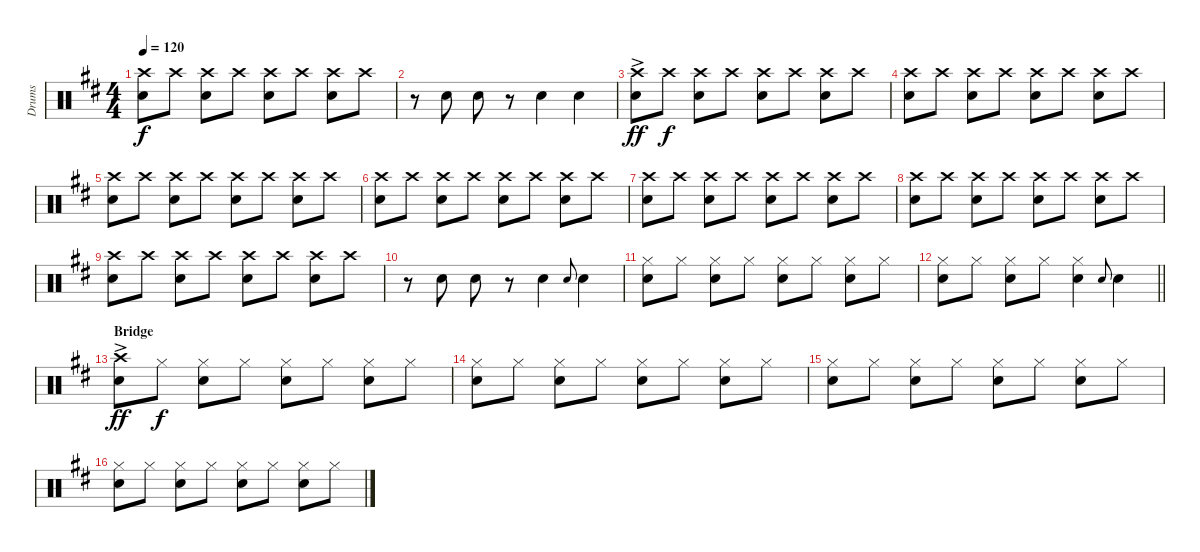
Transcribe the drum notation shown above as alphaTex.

\track ("Drums" "Drums") {instrument percussion}
\staff {score}
\articulation defaults
\ts (4 4)
\tempo 120
\clef neutral
\ks d
("Crash high (hit)" "Snare (hit) 2").8{dy f} "Crash high (hit)".8 ("Crash high (hit)" "Snare (hit) 2").8 "Crash high (hit)".8 ("Crash high (hit)" "Snare (hit) 2").8 "Crash high (hit)".8 ("Crash high (hit)" "Snare (hit) 2").8 "Crash high (hit)".8 |
r.8 "Snare (hit) 2".8 "Snare (hit) 2".8 r.8 "Snare (hit) 2".4 "Snare (hit) 2".4 |
("Crash high (hit)"{ac} "Snare (hit) 2").8{dy ff} "Crash high (hit)".8{dy f} ("Crash high (hit)" "Snare (hit) 2").8 "Crash high (hit)".8 ("Crash high (hit)" "Snare (hit) 2").8 "Crash high (hit)".8 ("Crash high (hit)" "Snare (hit) 2").8 "Crash high (hit)".8 |
("Crash high (hit)" "Snare (hit) 2").8 "Crash high (hit)".8 ("Crash high (hit)" "Snare (hit) 2").8 "Crash high (hit)".8 ("Crash high (hit)" "Snare (hit) 2").8 "Crash high (hit)".8 ("Crash high (hit)" "Snare (hit) 2").8 "Crash high (hit)".8 |
("Crash high (hit)" "Snare (hit) 2").8 "Crash high (hit)".8 ("Crash high (hit)" "Snare (hit) 2").8 "Crash high (hit)".8 ("Crash high (hit)" "Snare (hit) 2").8 "Crash high (hit)".8 ("Crash high (hit)" "Snare (hit) 2").8 "Crash high (hit)".8 |
("Crash high (hit)" "Snare (hit) 2").8 "Crash high (hit)".8 ("Crash high (hit)" "Snare (hit) 2").8 "Crash high (hit)".8 ("Crash high (hit)" "Snare (hit) 2").8 "Crash high (hit)".8 ("Crash high (hit)" "Snare (hit) 2").8 "Crash high (hit)".8 |
("Crash high (hit)" "Snare (hit) 2").8 "Crash high (hit)".8 ("Crash high (hit)" "Snare (hit) 2").8 "Crash high (hit)".8 ("Crash high (hit)" "Snare (hit) 2").8 "Crash high (hit)".8 ("Crash high (hit)" "Snare (hit) 2").8 "Crash high (hit)".8 |
("Crash high (hit)" "Snare (hit) 2").8 "Crash high (hit)".8 ("Crash high (hit)" "Snare (hit) 2").8 "Crash high (hit)".8 ("Crash high (hit)" "Snare (hit) 2").8 "Crash high (hit)".8 ("Crash high (hit)" "Snare (hit) 2").8 "Crash high (hit)".8 |
("Crash high (hit)" "Snare (hit) 2").8 "Crash high (hit)".8 ("Crash high (hit)" "Snare (hit) 2").8 "Crash high (hit)".8 ("Crash high (hit)" "Snare (hit) 2").8 "Crash high (hit)".8 ("Crash high (hit)" "Snare (hit) 2").8 "Crash high (hit)".8 |
r.8 "Snare (hit) 2".8 "Snare (hit) 2".8 r.8 "Snare (hit) 2".4 "Snare (hit) 2".8{gr onbeat} "Snare (hit) 2".4 |
("Hi-Hat (closed)" "Snare (hit) 2").8 "Hi-Hat (closed)".8 ("Hi-Hat (closed)" "Snare (hit) 2").8 "Hi-Hat (closed)".8 ("Hi-Hat (closed)" "Snare (hit) 2").8 "Hi-Hat (closed)".8 ("Hi-Hat (closed)" "Snare (hit) 2").8 "Hi-Hat (closed)".8 |
\barLineRight lightlight
("Hi-Hat (closed)" "Snare (hit) 2").8 "Hi-Hat (closed)".8 ("Hi-Hat (closed)" "Snare (hit) 2").8 "Hi-Hat (closed)".8 ("Hi-Hat (closed)" "Snare (hit) 2").4 "Snare (hit) 2".8{gr onbeat} "Snare (hit) 2".4 |
\section ("" "Bridge")
("Crash high (hit)"{ac} "Snare (hit) 2").8{dy ff} "Hi-Hat (closed)".8{dy f} ("Hi-Hat (closed)" "Snare (hit) 2").8 "Hi-Hat (closed)".8 ("Hi-Hat (closed)" "Snare (hit) 2").8 "Hi-Hat (closed)".8 ("Hi-Hat (closed)" "Snare (hit) 2").8 "Hi-Hat (closed)".8 |
("Hi-Hat (closed)" "Snare (hit) 2").8 "Hi-Hat (closed)".8 ("Hi-Hat (closed)" "Snare (hit) 2").8 "Hi-Hat (closed)".8 ("Hi-Hat (closed)" "Snare (hit) 2").8 "Hi-Hat (closed)".8 ("Hi-Hat (closed)" "Snare (hit) 2").8 "Hi-Hat (closed)".8 |
("Hi-Hat (closed)" "Snare (hit) 2").8 "Hi-Hat (closed)".8 ("Hi-Hat (closed)" "Snare (hit) 2").8 "Hi-Hat (closed)".8 ("Hi-Hat (closed)" "Snare (hit) 2").8 "Hi-Hat (closed)".8 ("Hi-Hat (closed)" "Snare (hit) 2").8 "Hi-Hat (closed)".8 |
("Hi-Hat (closed)" "Snare (hit) 2").8 "Hi-Hat (closed)".8 ("Hi-Hat (closed)" "Snare (hit) 2").8 "Hi-Hat (closed)".8 ("Hi-Hat (closed)" "Snare (hit) 2").8 "Hi-Hat (closed)".8 ("Hi-Hat (closed)" "Snare (hit) 2").8 "Hi-Hat (closed)".8
